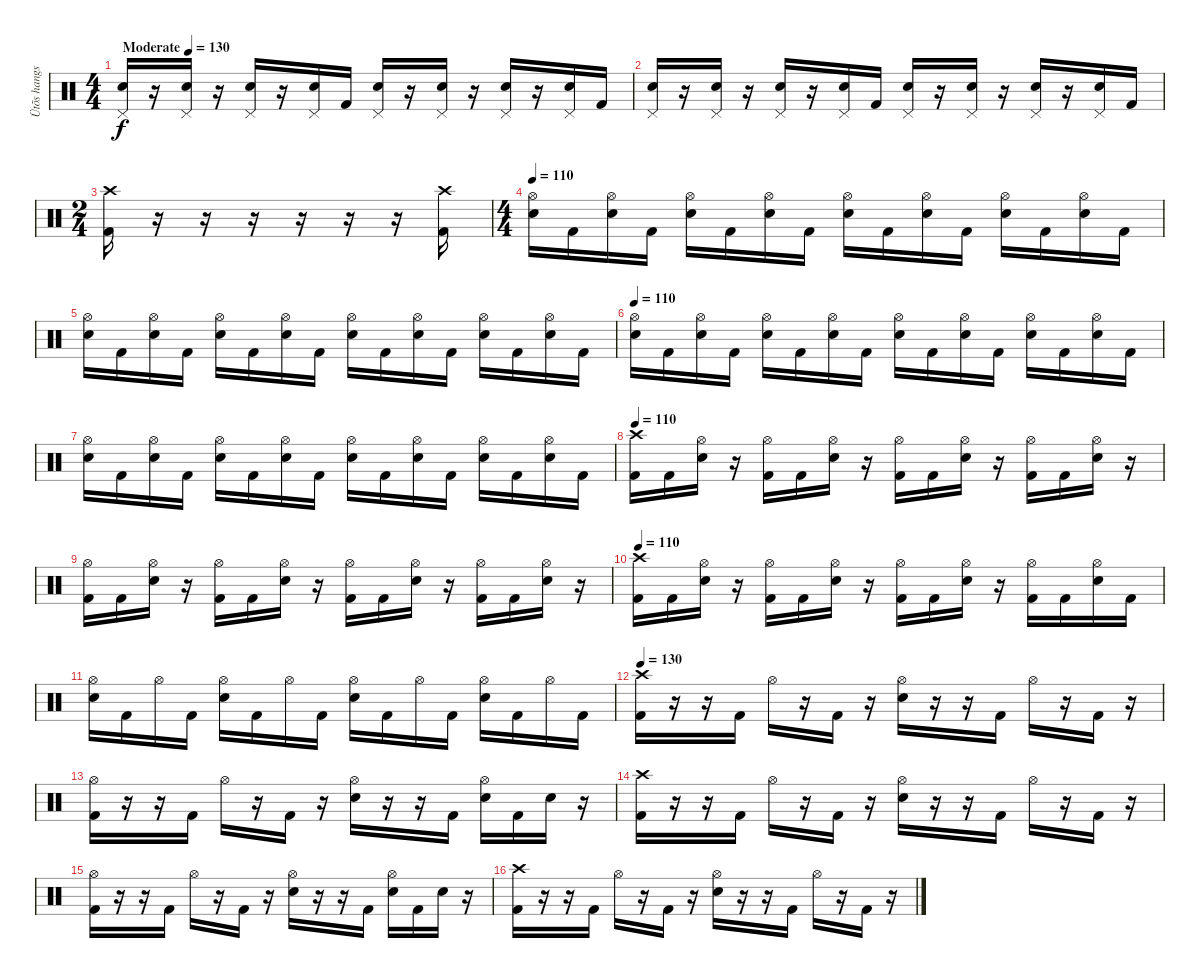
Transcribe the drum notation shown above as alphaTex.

\track ("Ütõs hangszer" "Ütõs hangs") {instrument percussion}
\staff {score}
\articulation defaults
\ts (4 4)
\tempo (130 "Moderate")
\tempo 110
\tempo (130 "Moderate")
\clef neutral
\ks c
("Pedal Hi-Hat (hit)" "Snare (hit) 2").16{dy f} r.16 ("Pedal Hi-Hat (hit)" "Snare (hit) 2").16 r.16 ("Pedal Hi-Hat (hit)" "Snare (hit) 2").16 r.16 ("Pedal Hi-Hat (hit)" "Snare (hit) 2").16 "Kick (hit) 2".16 ("Pedal Hi-Hat (hit)" "Snare (hit) 2").16 r.16 ("Pedal Hi-Hat (hit)" "Snare (hit) 2").16 r.16 ("Pedal Hi-Hat (hit)" "Snare (hit) 2").16 r.16 ("Pedal Hi-Hat (hit)" "Snare (hit) 2").16 "Kick (hit) 2".16 |
("Pedal Hi-Hat (hit)" "Snare (hit) 2").16 r.16 ("Pedal Hi-Hat (hit)" "Snare (hit) 2").16 r.16 ("Pedal Hi-Hat (hit)" "Snare (hit) 2").16 r.16 ("Pedal Hi-Hat (hit)" "Snare (hit) 2").16 "Kick (hit) 2".16 ("Pedal Hi-Hat (hit)" "Snare (hit) 2").16 r.16 ("Pedal Hi-Hat (hit)" "Snare (hit) 2").16 r.16 ("Pedal Hi-Hat (hit)" "Snare (hit) 2").16 r.16 ("Pedal Hi-Hat (hit)" "Snare (hit) 2").16 "Kick (hit) 2".16 |
\ts (2 4)
("Crash high (hit)" "Kick (hit) 2").16 r.16 r.16 r.16 r.16 r.16 r.16 ("Crash high (hit)" "Kick (hit) 2").16 |
\ts (4 4)
\tempo 110
("Hi-Hat (open)" "Snare (hit) 2").16 "Kick (hit) 2".16 ("Hi-Hat (open)" "Snare (hit) 2").16 "Kick (hit) 2".16 ("Hi-Hat (open)" "Snare (hit) 2").16 "Kick (hit) 2".16 ("Hi-Hat (open)" "Snare (hit) 2").16 "Kick (hit) 2".16 ("Hi-Hat (open)" "Snare (hit) 2").16 "Kick (hit) 2".16 ("Hi-Hat (open)" "Snare (hit) 2").16 "Kick (hit) 2".16 ("Hi-Hat (open)" "Snare (hit) 2").16 "Kick (hit) 2".16 ("Hi-Hat (open)" "Snare (hit) 2").16 "Kick (hit) 2".16 |
("Hi-Hat (open)" "Snare (hit) 2").16 "Kick (hit) 2".16 ("Hi-Hat (open)" "Snare (hit) 2").16 "Kick (hit) 2".16 ("Hi-Hat (open)" "Snare (hit) 2").16 "Kick (hit) 2".16 ("Hi-Hat (open)" "Snare (hit) 2").16 "Kick (hit) 2".16 ("Hi-Hat (open)" "Snare (hit) 2").16 "Kick (hit) 2".16 ("Hi-Hat (open)" "Snare (hit) 2").16 "Kick (hit) 2".16 ("Hi-Hat (open)" "Snare (hit) 2").16 "Kick (hit) 2".16 ("Hi-Hat (open)" "Snare (hit) 2").16 "Kick (hit) 2".16 |
\tempo 110
("Hi-Hat (open)" "Snare (hit) 2").16 "Kick (hit) 2".16 ("Hi-Hat (open)" "Snare (hit) 2").16 "Kick (hit) 2".16 ("Hi-Hat (open)" "Snare (hit) 2").16 "Kick (hit) 2".16 ("Hi-Hat (open)" "Snare (hit) 2").16 "Kick (hit) 2".16 ("Hi-Hat (open)" "Snare (hit) 2").16 "Kick (hit) 2".16 ("Hi-Hat (open)" "Snare (hit) 2").16 "Kick (hit) 2".16 ("Hi-Hat (open)" "Snare (hit) 2").16 "Kick (hit) 2".16 ("Hi-Hat (open)" "Snare (hit) 2").16 "Kick (hit) 2".16 |
("Hi-Hat (open)" "Snare (hit) 2").16 "Kick (hit) 2".16 ("Hi-Hat (open)" "Snare (hit) 2").16 "Kick (hit) 2".16 ("Hi-Hat (open)" "Snare (hit) 2").16 "Kick (hit) 2".16 ("Hi-Hat (open)" "Snare (hit) 2").16 "Kick (hit) 2".16 ("Hi-Hat (open)" "Snare (hit) 2").16 "Kick (hit) 2".16 ("Hi-Hat (open)" "Snare (hit) 2").16 "Kick (hit) 2".16 ("Hi-Hat (open)" "Snare (hit) 2").16 "Kick (hit) 2".16 ("Hi-Hat (open)" "Snare (hit) 2").16 "Kick (hit) 2".16 |
\tempo 110
("Crash high (hit)" "Kick (hit) 2").16 "Kick (hit) 2".16 ("Hi-Hat (open)" "Snare (hit) 2").16 r.16 ("Hi-Hat (open)" "Kick (hit) 2").16 "Kick (hit) 2".16 ("Hi-Hat (open)" "Snare (hit) 2").16 r.16 ("Hi-Hat (open)" "Kick (hit) 2").16 "Kick (hit) 2".16 ("Hi-Hat (open)" "Snare (hit) 2").16 r.16 ("Hi-Hat (open)" "Kick (hit) 2").16 "Kick (hit) 2".16 ("Hi-Hat (open)" "Snare (hit) 2").16 r.16 |
("Hi-Hat (open)" "Kick (hit) 2").16 "Kick (hit) 2".16 ("Hi-Hat (open)" "Snare (hit) 2").16 r.16 ("Hi-Hat (open)" "Kick (hit) 2").16 "Kick (hit) 2".16 ("Hi-Hat (open)" "Snare (hit) 2").16 r.16 ("Hi-Hat (open)" "Kick (hit) 2").16 "Kick (hit) 2".16 ("Hi-Hat (open)" "Snare (hit) 2").16 r.16 ("Hi-Hat (open)" "Kick (hit) 2").16 "Kick (hit) 2".16 ("Hi-Hat (open)" "Snare (hit) 2").16 r.16 |
\tempo 110
("Crash high (hit)" "Kick (hit) 2").16 "Kick (hit) 2".16 ("Hi-Hat (open)" "Snare (hit) 2").16 r.16 ("Hi-Hat (open)" "Kick (hit) 2").16 "Kick (hit) 2".16 ("Hi-Hat (open)" "Snare (hit) 2").16 r.16 ("Hi-Hat (open)" "Kick (hit) 2").16 "Kick (hit) 2".16 ("Hi-Hat (open)" "Snare (hit) 2").16 r.16 ("Hi-Hat (open)" "Kick (hit) 2").16 "Kick (hit) 2".16 ("Hi-Hat (open)" "Snare (hit) 2").16 "Kick (hit) 2".16 |
("Hi-Hat (open)" "Snare (hit) 2").16 "Kick (hit) 2".16 "Hi-Hat (open)".16 "Kick (hit) 2".16 ("Hi-Hat (open)" "Snare (hit) 2").16 "Kick (hit) 2".16 "Hi-Hat (open)".16 "Kick (hit) 2".16 ("Hi-Hat (open)" "Snare (hit) 2").16 "Kick (hit) 2".16 "Hi-Hat (open)".16 "Kick (hit) 2".16 ("Hi-Hat (open)" "Snare (hit) 2").16 "Kick (hit) 2".16 "Hi-Hat (open)".16 "Kick (hit) 2".16 |
\tempo 130
("Crash high (hit)" "Kick (hit) 2").16 r.16 r.16 "Kick (hit) 2".16 "Hi-Hat (open)".16 r.16 "Kick (hit) 2".16 r.16 ("Hi-Hat (open)" "Snare (hit) 2").16 r.16 r.16 "Kick (hit) 2".16 "Hi-Hat (open)".16 r.16 "Kick (hit) 2".16 r.16 |
("Hi-Hat (open)" "Kick (hit) 2").16 r.16 r.16 "Kick (hit) 2".16 "Hi-Hat (open)".16 r.16 "Kick (hit) 2".16 r.16 ("Hi-Hat (open)" "Snare (hit) 2").16 r.16 r.16 "Kick (hit) 2".16 ("Hi-Hat (open)" "Snare (hit) 2").16 "Kick (hit) 2".16 "Snare (hit) 2".16 r.16 |
("Crash high (hit)" "Kick (hit) 2").16 r.16 r.16 "Kick (hit) 2".16 "Hi-Hat (open)".16 r.16 "Kick (hit) 2".16 r.16 ("Hi-Hat (open)" "Snare (hit) 2").16 r.16 r.16 "Kick (hit) 2".16 "Hi-Hat (open)".16 r.16 "Kick (hit) 2".16 r.16 |
("Hi-Hat (open)" "Kick (hit) 2").16 r.16 r.16 "Kick (hit) 2".16 "Hi-Hat (open)".16 r.16 "Kick (hit) 2".16 r.16 ("Hi-Hat (open)" "Snare (hit) 2").16 r.16 r.16 "Kick (hit) 2".16 ("Hi-Hat (open)" "Snare (hit) 2").16 "Kick (hit) 2".16 "Snare (hit) 2".16 r.16 |
("Crash high (hit)" "Kick (hit) 2").16 r.16 r.16 "Kick (hit) 2".16 "Hi-Hat (open)".16 r.16 "Kick (hit) 2".16 r.16 ("Hi-Hat (open)" "Snare (hit) 2").16 r.16 r.16 "Kick (hit) 2".16 "Hi-Hat (open)".16 r.16 "Kick (hit) 2".16 r.16
